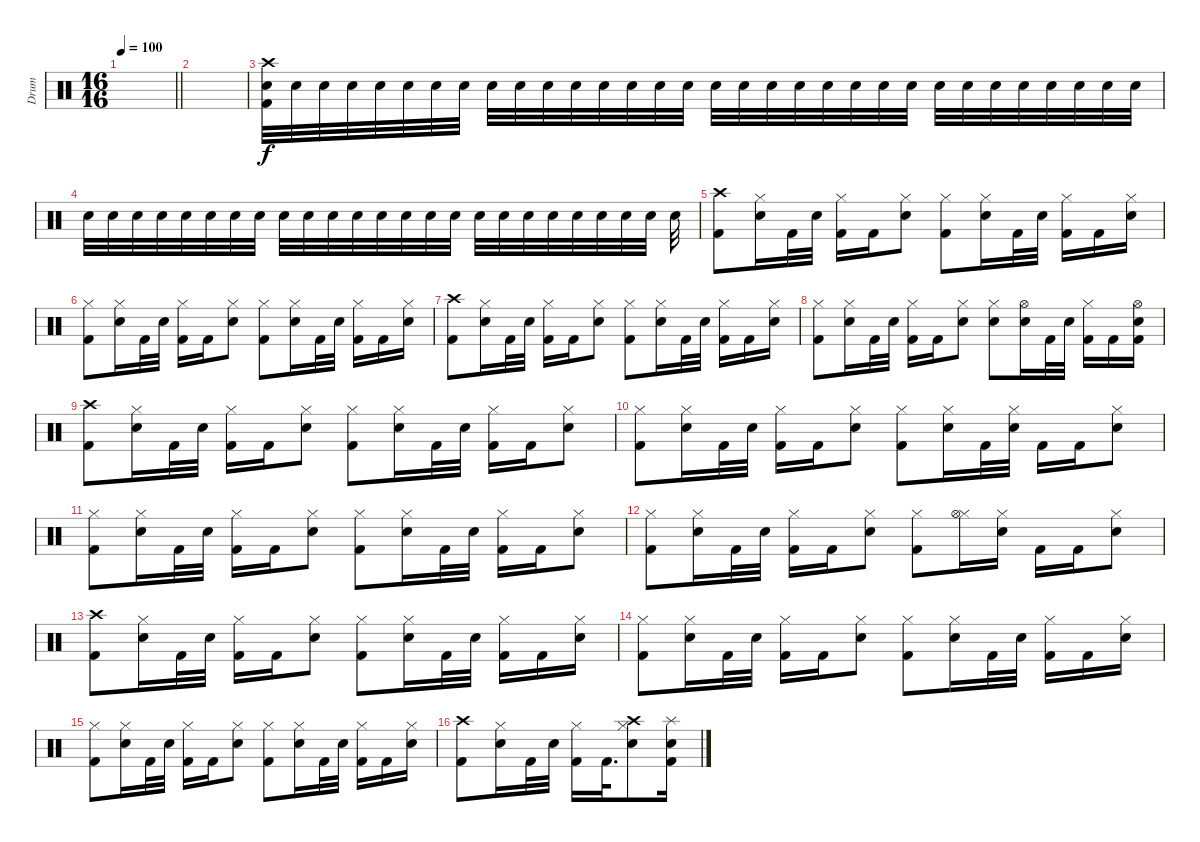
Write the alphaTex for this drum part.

\track ("Drum" "Drum") {instrument percussion}
\staff {score}
\articulation defaults
\ts (16 16)
\tempo 100
\clef neutral
\barLineRight lightlight
\ks aminor
|
|
("Crash high (hit)" "Kick (hit) 2" "Snare (hit) 2").32 "Snare (hit) 2".32 "Snare (hit) 2".32 "Snare (hit) 2".32 "Snare (hit) 2".32 "Snare (hit) 2".32 "Snare (hit) 2".32 "Snare (hit) 2".32 "Snare (hit) 2".32 "Snare (hit) 2".32 "Snare (hit) 2".32 "Snare (hit) 2".32 "Snare (hit) 2".32 "Snare (hit) 2".32 "Snare (hit) 2".32 "Snare (hit) 2".32 "Snare (hit) 2".32 "Snare (hit) 2".32 "Snare (hit) 2".32 "Snare (hit) 2".32 "Snare (hit) 2".32 "Snare (hit) 2".32 "Snare (hit) 2".32 "Snare (hit) 2".32 "Snare (hit) 2".32 "Snare (hit) 2".32 "Snare (hit) 2".32 "Snare (hit) 2".32 "Snare (hit) 2".32 "Snare (hit) 2".32 "Snare (hit) 2".32 "Snare (hit) 2".32 |
"Snare (hit) 2".32 "Snare (hit) 2".32 "Snare (hit) 2".32 "Snare (hit) 2".32 "Snare (hit) 2".32 "Snare (hit) 2".32 "Snare (hit) 2".32 "Snare (hit) 2".32 "Snare (hit) 2".32 "Snare (hit) 2".32 "Snare (hit) 2".32 "Snare (hit) 2".32 "Snare (hit) 2".32 "Snare (hit) 2".32 "Snare (hit) 2".32 "Snare (hit) 2".32 "Snare (hit) 2".32 "Snare (hit) 2".32 "Snare (hit) 2".32 "Snare (hit) 2".32 "Snare (hit) 2".32 "Snare (hit) 2".32 "Snare (hit) 2".32 "Snare (hit) 2".32 "Snare (hit) 2".32 |
("Crash high (hit)" "Kick (hit) 2").8 ("Hi-Hat (closed)" "Snare (hit) 2").16 "Kick (hit) 2".32 "Snare (hit) 2".32 ("Hi-Hat (closed)" "Kick (hit) 2").16 "Kick (hit) 2".16 ("Hi-Hat (closed)" "Snare (hit) 2").8 ("Hi-Hat (closed)" "Kick (hit) 2").8 ("Hi-Hat (closed)" "Snare (hit) 2").16 "Kick (hit) 2".32 "Snare (hit) 2".32 ("Hi-Hat (closed)" "Kick (hit) 2").16 "Kick (hit) 2".16 ("Hi-Hat (closed)" "Snare (hit) 2").16 |
("Hi-Hat (closed)" "Kick (hit) 2").8 ("Hi-Hat (closed)" "Snare (hit) 2").16 "Kick (hit) 2".32 "Snare (hit) 2".32 ("Hi-Hat (closed)" "Kick (hit) 2").16 "Kick (hit) 2".16 ("Hi-Hat (closed)" "Snare (hit) 2").8 ("Hi-Hat (closed)" "Kick (hit) 2").8 ("Hi-Hat (closed)" "Snare (hit) 2").16 "Kick (hit) 2".32 "Snare (hit) 2".32 ("Hi-Hat (closed)" "Kick (hit) 2").16 "Kick (hit) 2".16 ("Hi-Hat (closed)" "Snare (hit) 2").16 |
("Crash high (hit)" "Kick (hit) 2").8 ("Hi-Hat (closed)" "Snare (hit) 2").16 "Kick (hit) 2".32 "Snare (hit) 2".32 ("Hi-Hat (closed)" "Kick (hit) 2").16 "Kick (hit) 2".16 ("Hi-Hat (closed)" "Snare (hit) 2").8 ("Hi-Hat (closed)" "Kick (hit) 2").8 ("Hi-Hat (closed)" "Snare (hit) 2").16 "Kick (hit) 2".32 "Snare (hit) 2".32 ("Hi-Hat (closed)" "Kick (hit) 2").16 "Kick (hit) 2".16 ("Hi-Hat (closed)" "Snare (hit) 2").16 |
("Hi-Hat (closed)" "Kick (hit) 2").8 ("Hi-Hat (closed)" "Snare (hit) 2").16 "Kick (hit) 2".32 "Snare (hit) 2".32 ("Hi-Hat (closed)" "Kick (hit) 2").16 "Kick (hit) 2".16 ("Hi-Hat (closed)" "Snare (hit) 2").8 ("Hi-Hat (closed)" "Snare (hit) 2").8 ("Hi-Hat (open)" "Snare (hit) 2").16 "Kick (hit) 2".32 "Snare (hit) 2".32 ("Hi-Hat (closed)" "Kick (hit) 2").16 "Kick (hit) 2".16 ("Hi-Hat (open)" "Kick (hit) 2" "Snare (hit) 2").16 |
("Crash high (hit)" "Kick (hit) 2").8 ("Hi-Hat (closed)" "Snare (hit) 2").16 "Kick (hit) 2".32 "Snare (hit) 2".32 ("Hi-Hat (closed)" "Kick (hit) 2").16 "Kick (hit) 2".16 ("Hi-Hat (closed)" "Snare (hit) 2").8 ("Hi-Hat (closed)" "Kick (hit) 2").8 ("Hi-Hat (closed)" "Snare (hit) 2").16 "Kick (hit) 2".32 "Snare (hit) 2".32 ("Hi-Hat (closed)" "Kick (hit) 2").16 "Kick (hit) 2".16 ("Hi-Hat (closed)" "Snare (hit) 2").8 |
("Hi-Hat (closed)" "Kick (hit) 2").8 ("Hi-Hat (closed)" "Snare (hit) 2").16 "Kick (hit) 2".32 "Snare (hit) 2".32 ("Hi-Hat (closed)" "Kick (hit) 2").16 "Kick (hit) 2".16 ("Hi-Hat (closed)" "Snare (hit) 2").8 ("Hi-Hat (closed)" "Kick (hit) 2").8 ("Hi-Hat (closed)" "Snare (hit) 2").16 "Kick (hit) 2".32 ("Hi-Hat (closed)" "Snare (hit) 2").32 "Kick (hit) 2".16 "Kick (hit) 2".16 ("Hi-Hat (closed)" "Snare (hit) 2").8 |
("Hi-Hat (closed)" "Kick (hit) 2").8 ("Hi-Hat (closed)" "Snare (hit) 2").16 "Kick (hit) 2".32 "Snare (hit) 2".32 ("Hi-Hat (closed)" "Kick (hit) 2").16 "Kick (hit) 2".16 ("Hi-Hat (closed)" "Snare (hit) 2").8 ("Hi-Hat (closed)" "Kick (hit) 2").8 ("Hi-Hat (closed)" "Snare (hit) 2").16 "Kick (hit) 2".32 "Snare (hit) 2".32 ("Hi-Hat (closed)" "Kick (hit) 2").16 "Kick (hit) 2".16 ("Hi-Hat (closed)" "Snare (hit) 2").8 |
("Hi-Hat (closed)" "Kick (hit) 2").8 ("Hi-Hat (closed)" "Snare (hit) 2").16 "Kick (hit) 2".32 "Snare (hit) 2".32 ("Hi-Hat (closed)" "Kick (hit) 2").16 "Kick (hit) 2".16 ("Hi-Hat (closed)" "Snare (hit) 2").8 ("Hi-Hat (closed)" "Kick (hit) 2").8 ("Hi-Hat (closed)" "Hi-Hat (open)").16 ("Hi-Hat (closed)" "Snare (hit) 2").16 "Kick (hit) 2".16 "Kick (hit) 2".16 ("Hi-Hat (closed)" "Snare (hit) 2").8 |
("Crash high (hit)" "Kick (hit) 2").8 ("Hi-Hat (closed)" "Snare (hit) 2").16 "Kick (hit) 2".32 "Snare (hit) 2".32 ("Hi-Hat (closed)" "Kick (hit) 2").16 "Kick (hit) 2".16 ("Hi-Hat (closed)" "Snare (hit) 2").8 ("Hi-Hat (closed)" "Kick (hit) 2").8 ("Hi-Hat (closed)" "Snare (hit) 2").16 "Kick (hit) 2".32 "Snare (hit) 2".32 ("Hi-Hat (closed)" "Kick (hit) 2").16 "Kick (hit) 2".16 ("Hi-Hat (closed)" "Snare (hit) 2").16 |
("Hi-Hat (closed)" "Kick (hit) 2").8 ("Hi-Hat (closed)" "Snare (hit) 2").16 "Kick (hit) 2".32 "Snare (hit) 2".32 ("Hi-Hat (closed)" "Kick (hit) 2").16 "Kick (hit) 2".16 ("Hi-Hat (closed)" "Snare (hit) 2").8 ("Hi-Hat (closed)" "Kick (hit) 2").8 ("Hi-Hat (closed)" "Snare (hit) 2").16 "Kick (hit) 2".32 "Snare (hit) 2".32 ("Hi-Hat (closed)" "Kick (hit) 2").16 "Kick (hit) 2".16 ("Hi-Hat (closed)" "Snare (hit) 2").16 |
("Hi-Hat (closed)" "Kick (hit) 2").8 ("Hi-Hat (closed)" "Snare (hit) 2").16 "Kick (hit) 2".32 "Snare (hit) 2".32 ("Hi-Hat (closed)" "Kick (hit) 2").16 "Kick (hit) 2".16 ("Hi-Hat (closed)" "Snare (hit) 2").8 ("Hi-Hat (closed)" "Kick (hit) 2").8 ("Hi-Hat (closed)" "Snare (hit) 2").16 "Kick (hit) 2".32 "Snare (hit) 2".32 ("Hi-Hat (closed)" "Kick (hit) 2").16 "Kick (hit) 2".16 ("Hi-Hat (closed)" "Snare (hit) 2").16 |
("Crash high (hit)" "Kick (hit) 2").8 ("Hi-Hat (closed)" "Snare (hit) 2").16 "Kick (hit) 2".32 "Snare (hit) 2".32 ("Hi-Hat (closed)" "Kick (hit) 2").16 "Kick (hit) 2".32{d} ("Crash high (hit)" "Hi-Hat (closed)" "Snare (hit) 2").8 ("Splash (hit)" "Snare (hit) 2" "Kick (hit) 2").16
